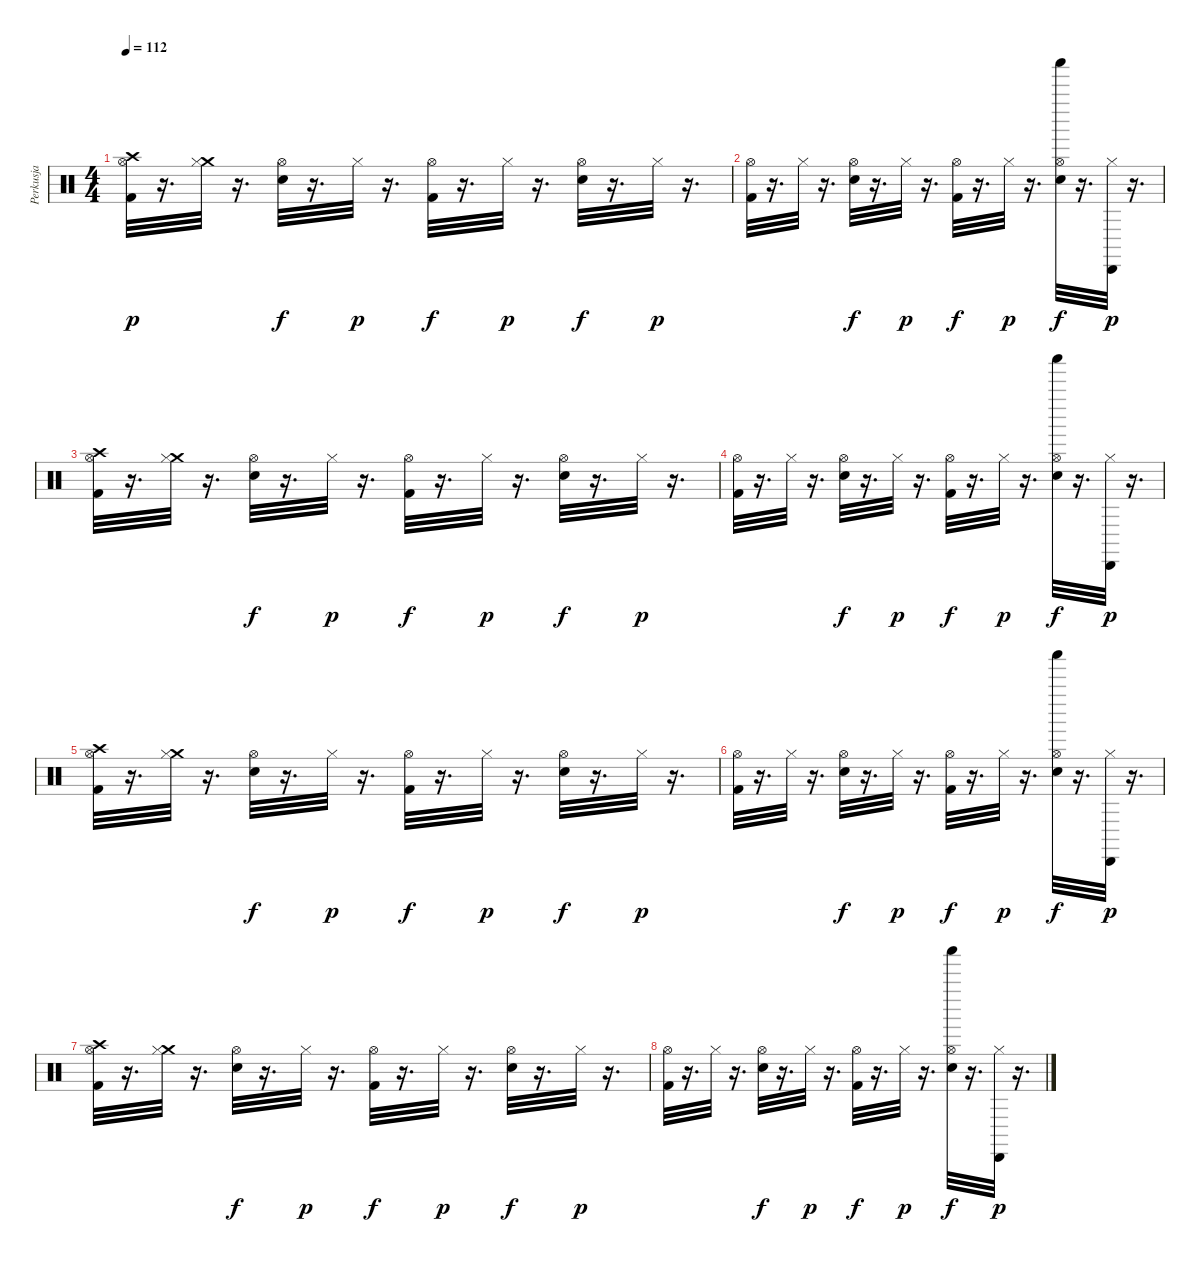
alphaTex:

\track ("Perkusja" "Perkusja") {instrument percussion}
\staff {score}
\articulation defaults
\ts (4 4)
\tempo 112
\clef neutral
\ks c
("Crash high (hit)" "Hi-Hat (open)" "Kick (hit) 2").32{dy p} r.16{d} ("Crash medium (hit)" "Hi-Hat (closed)").32 r.16{d} ("Hi-Hat (open)" "Snare (hit) 2").32{dy f} r.16{d} "Hi-Hat (closed)".32{dy p} r.16{d} ("Hi-Hat (open)" "Kick (hit) 2").32{dy f} r.16{d} "Hi-Hat (closed)".32{dy p} r.16{d} ("Hi-Hat (open)" "Snare (hit) 2").32{dy f} r.16{d} "Hi-Hat (closed)".32{dy p} r.16{d} |
("Hi-Hat (open)" "Kick (hit) 2").32 r.16{d} "Hi-Hat (closed)".32 r.16{d} ("Hi-Hat (open)" "Snare (hit) 2").32{dy f} r.16{d} "Hi-Hat (closed)".32{dy p} r.16{d} ("Hi-Hat (open)" "Kick (hit) 2").32{dy f} r.16{d} "Hi-Hat (closed)".32{dy p} r.16{d} ("Shaker (hit)" "Hi-Hat (open)" "Snare (hit) 2").32{dy f} r.16{d} ("Hi-Hat (closed)" "Cabasa (hit)").32{dy p} r.16{d} |
("Crash high (hit)" "Hi-Hat (open)" "Kick (hit) 2").32 r.16{d} ("Crash medium (hit)" "Hi-Hat (closed)").32 r.16{d} ("Hi-Hat (open)" "Snare (hit) 2").32{dy f} r.16{d} "Hi-Hat (closed)".32{dy p} r.16{d} ("Hi-Hat (open)" "Kick (hit) 2").32{dy f} r.16{d} "Hi-Hat (closed)".32{dy p} r.16{d} ("Hi-Hat (open)" "Snare (hit) 2").32{dy f} r.16{d} "Hi-Hat (closed)".32{dy p} r.16{d} |
("Hi-Hat (open)" "Kick (hit) 2").32 r.16{d} "Hi-Hat (closed)".32 r.16{d} ("Hi-Hat (open)" "Snare (hit) 2").32{dy f} r.16{d} "Hi-Hat (closed)".32{dy p} r.16{d} ("Hi-Hat (open)" "Kick (hit) 2").32{dy f} r.16{d} "Hi-Hat (closed)".32{dy p} r.16{d} ("Shaker (hit)" "Hi-Hat (open)" "Snare (hit) 2").32{dy f} r.16{d} ("Hi-Hat (closed)" "Cabasa (hit)").32{dy p} r.16{d} |
("Crash high (hit)" "Hi-Hat (open)" "Kick (hit) 2").32 r.16{d} ("Crash medium (hit)" "Hi-Hat (closed)").32 r.16{d} ("Hi-Hat (open)" "Snare (hit) 2").32{dy f} r.16{d} "Hi-Hat (closed)".32{dy p} r.16{d} ("Hi-Hat (open)" "Kick (hit) 2").32{dy f} r.16{d} "Hi-Hat (closed)".32{dy p} r.16{d} ("Hi-Hat (open)" "Snare (hit) 2").32{dy f} r.16{d} "Hi-Hat (closed)".32{dy p} r.16{d} |
("Hi-Hat (open)" "Kick (hit) 2").32 r.16{d} "Hi-Hat (closed)".32 r.16{d} ("Hi-Hat (open)" "Snare (hit) 2").32{dy f} r.16{d} "Hi-Hat (closed)".32{dy p} r.16{d} ("Hi-Hat (open)" "Kick (hit) 2").32{dy f} r.16{d} "Hi-Hat (closed)".32{dy p} r.16{d} ("Shaker (hit)" "Hi-Hat (open)" "Snare (hit) 2").32{dy f} r.16{d} ("Hi-Hat (closed)" "Cabasa (hit)").32{dy p} r.16{d} |
("Crash high (hit)" "Hi-Hat (open)" "Kick (hit) 2").32 r.16{d} ("Crash medium (hit)" "Hi-Hat (closed)").32 r.16{d} ("Hi-Hat (open)" "Snare (hit) 2").32{dy f} r.16{d} "Hi-Hat (closed)".32{dy p} r.16{d} ("Hi-Hat (open)" "Kick (hit) 2").32{dy f} r.16{d} "Hi-Hat (closed)".32{dy p} r.16{d} ("Hi-Hat (open)" "Snare (hit) 2").32{dy f} r.16{d} "Hi-Hat (closed)".32{dy p} r.16{d} |
("Hi-Hat (open)" "Kick (hit) 2").32 r.16{d} "Hi-Hat (closed)".32 r.16{d} ("Hi-Hat (open)" "Snare (hit) 2").32{dy f} r.16{d} "Hi-Hat (closed)".32{dy p} r.16{d} ("Hi-Hat (open)" "Kick (hit) 2").32{dy f} r.16{d} "Hi-Hat (closed)".32{dy p} r.16{d} ("Shaker (hit)" "Hi-Hat (open)" "Snare (hit) 2").32{dy f} r.16{d} ("Hi-Hat (closed)" "Cabasa (hit)").32{dy p} r.16{d}
